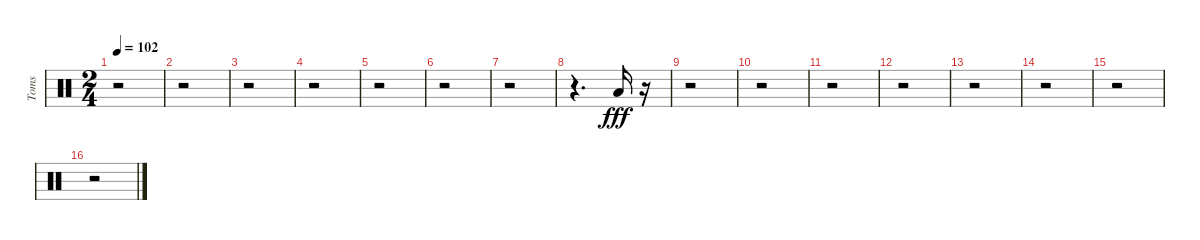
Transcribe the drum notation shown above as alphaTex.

\track ("Toms" "Toms") {instrument percussion}
\staff {score}
\articulation defaults
\ts (2 4)
\tempo 102
\clef neutral
\ks c
r.2{dy fff} |
r.2 |
r.2 |
r.2 |
r.2 |
r.2 |
r.2 |
r.4{d} "Low Floor Tom (hit)".16 r.16 |
r.2 |
r.2 |
r.2 |
r.2 |
r.2 |
r.2 |
r.2 |
r.2
